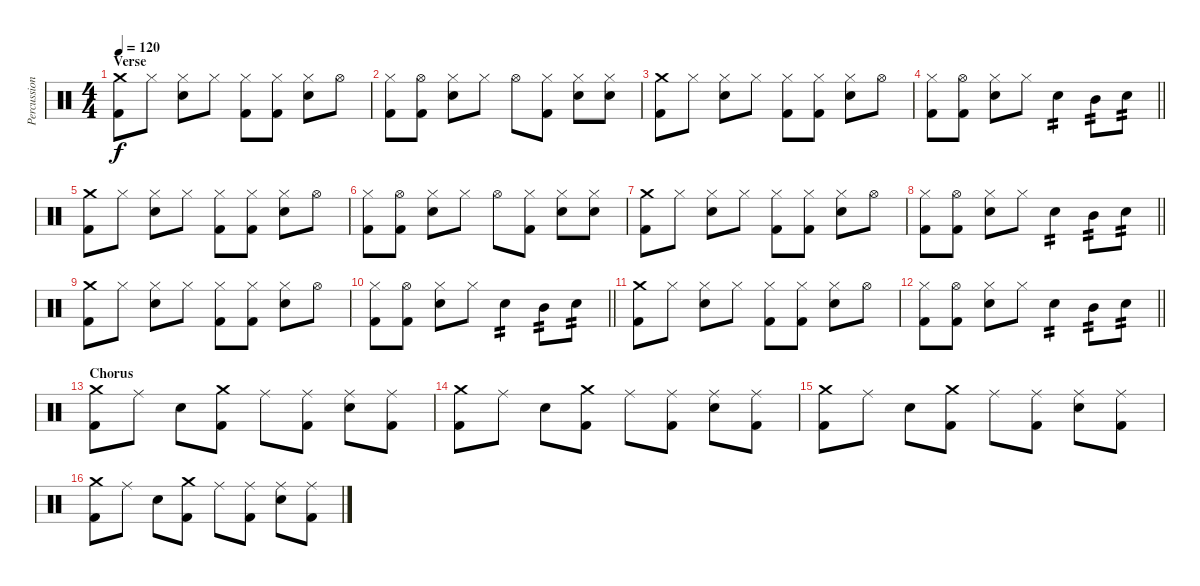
\track ("Percussion" "Percussion") {instrument percussion}
\staff {score}
\articulation defaults
\ts (4 4)
\section ("" "Verse")
\tempo 120
\clef neutral
\ks c
("Crash medium (hit)" "Kick (hit) 2").8{dy f} "Hi-Hat (closed)".8 ("Hi-Hat (closed)" "Snare (hit) 2").8 "Hi-Hat (closed)".8 ("Hi-Hat (closed)" "Kick (hit) 2").8 ("Hi-Hat (closed)" "Kick (hit) 2").8 ("Hi-Hat (closed)" "Snare (hit) 2").8 "Hi-Hat (open)".8 |
("Hi-Hat (closed)" "Kick (hit) 2").8 ("Hi-Hat (open)" "Kick (hit) 2").8 ("Hi-Hat (closed)" "Snare (hit) 2").8 "Hi-Hat (closed)".8 "Hi-Hat (open)".8 ("Hi-Hat (closed)" "Kick (hit) 2").8 ("Hi-Hat (closed)" "Snare (hit) 2").8 ("Hi-Hat (closed)" "Snare (hit) 2").8 |
("Crash medium (hit)" "Kick (hit) 2").8 "Hi-Hat (closed)".8 ("Hi-Hat (closed)" "Snare (hit) 2").8 "Hi-Hat (closed)".8 ("Hi-Hat (closed)" "Kick (hit) 2").8 ("Hi-Hat (closed)" "Kick (hit) 2").8 ("Hi-Hat (closed)" "Snare (hit) 2").8 "Hi-Hat (open)".8 |
\barLineRight lightlight
("Hi-Hat (closed)" "Kick (hit) 2").8 ("Hi-Hat (open)" "Kick (hit) 2").8 ("Hi-Hat (closed)" "Snare (hit) 2").8 "Hi-Hat (closed)".8 "Snare (hit) 2".4{tp 2} "Mid Tom (hit)".8{tp 2} "Snare (hit) 2".8{tp 2} |
("Crash medium (hit)" "Kick (hit) 2").8 "Hi-Hat (closed)".8 ("Hi-Hat (closed)" "Snare (hit) 2").8 "Hi-Hat (closed)".8 ("Hi-Hat (closed)" "Kick (hit) 2").8 ("Hi-Hat (closed)" "Kick (hit) 2").8 ("Hi-Hat (closed)" "Snare (hit) 2").8 "Hi-Hat (open)".8 |
("Hi-Hat (closed)" "Kick (hit) 2").8 ("Hi-Hat (open)" "Kick (hit) 2").8 ("Hi-Hat (closed)" "Snare (hit) 2").8 "Hi-Hat (closed)".8 "Hi-Hat (open)".8 ("Hi-Hat (closed)" "Kick (hit) 2").8 ("Hi-Hat (closed)" "Snare (hit) 2").8 ("Hi-Hat (closed)" "Snare (hit) 2").8 |
("Crash medium (hit)" "Kick (hit) 2").8 "Hi-Hat (closed)".8 ("Hi-Hat (closed)" "Snare (hit) 2").8 "Hi-Hat (closed)".8 ("Hi-Hat (closed)" "Kick (hit) 2").8 ("Hi-Hat (closed)" "Kick (hit) 2").8 ("Hi-Hat (closed)" "Snare (hit) 2").8 "Hi-Hat (open)".8 |
\barLineRight lightlight
("Hi-Hat (closed)" "Kick (hit) 2").8 ("Hi-Hat (open)" "Kick (hit) 2").8 ("Hi-Hat (closed)" "Snare (hit) 2").8 "Hi-Hat (closed)".8 "Snare (hit) 2".4{tp 2} "Mid Tom (hit)".8{tp 2} "Snare (hit) 2".8{tp 2} |
("Crash medium (hit)" "Kick (hit) 2").8 "Hi-Hat (closed)".8 ("Hi-Hat (closed)" "Snare (hit) 2").8 "Hi-Hat (closed)".8 ("Hi-Hat (closed)" "Kick (hit) 2").8 ("Hi-Hat (closed)" "Kick (hit) 2").8 ("Hi-Hat (closed)" "Snare (hit) 2").8 "Hi-Hat (open)".8 |
\barLineRight lightlight
("Hi-Hat (closed)" "Kick (hit) 2").8 ("Hi-Hat (open)" "Kick (hit) 2").8 ("Hi-Hat (closed)" "Snare (hit) 2").8 "Hi-Hat (closed)".8 "Snare (hit) 2".4{tp 2} "Mid Tom (hit)".8{tp 2} "Snare (hit) 2".8{tp 2} |
("Crash medium (hit)" "Kick (hit) 2").8 "Hi-Hat (closed)".8 ("Hi-Hat (closed)" "Snare (hit) 2").8 "Hi-Hat (closed)".8 ("Hi-Hat (closed)" "Kick (hit) 2").8 ("Hi-Hat (closed)" "Kick (hit) 2").8 ("Hi-Hat (closed)" "Snare (hit) 2").8 "Hi-Hat (open)".8 |
\barLineRight lightlight
("Hi-Hat (closed)" "Kick (hit) 2").8 ("Hi-Hat (open)" "Kick (hit) 2").8 ("Hi-Hat (closed)" "Snare (hit) 2").8 "Hi-Hat (closed)".8 "Snare (hit) 2".4{tp 2} "Mid Tom (hit)".8{tp 2} "Snare (hit) 2".8{tp 2} |
\section ("" "Chorus")
("Crash medium (hit)" "Kick (hit) 2").8 "Ride (middle)".8 "Snare (hit) 2".8 ("Crash medium (hit)" "Kick (hit) 2").8 "Ride (middle)".8 ("Ride (middle)" "Kick (hit) 2").8 ("Ride (middle)" "Snare (hit) 2").8 ("Ride (middle)" "Kick (hit) 2").8 |
("Crash medium (hit)" "Kick (hit) 2").8 "Ride (middle)".8 "Snare (hit) 2".8 ("Crash medium (hit)" "Kick (hit) 2").8 "Ride (middle)".8 ("Ride (middle)" "Kick (hit) 2").8 ("Ride (middle)" "Snare (hit) 2").8 ("Ride (middle)" "Kick (hit) 2").8 |
("Crash medium (hit)" "Kick (hit) 2").8 "Ride (middle)".8 "Snare (hit) 2".8 ("Crash medium (hit)" "Kick (hit) 2").8 "Ride (middle)".8 ("Ride (middle)" "Kick (hit) 2").8 ("Ride (middle)" "Snare (hit) 2").8 ("Ride (middle)" "Kick (hit) 2").8 |
("Crash medium (hit)" "Kick (hit) 2").8 "Ride (middle)".8 "Snare (hit) 2".8 ("Crash medium (hit)" "Kick (hit) 2").8 "Ride (middle)".8 ("Ride (middle)" "Kick (hit) 2").8 ("Ride (middle)" "Snare (hit) 2").8 ("Ride (middle)" "Kick (hit) 2").8
